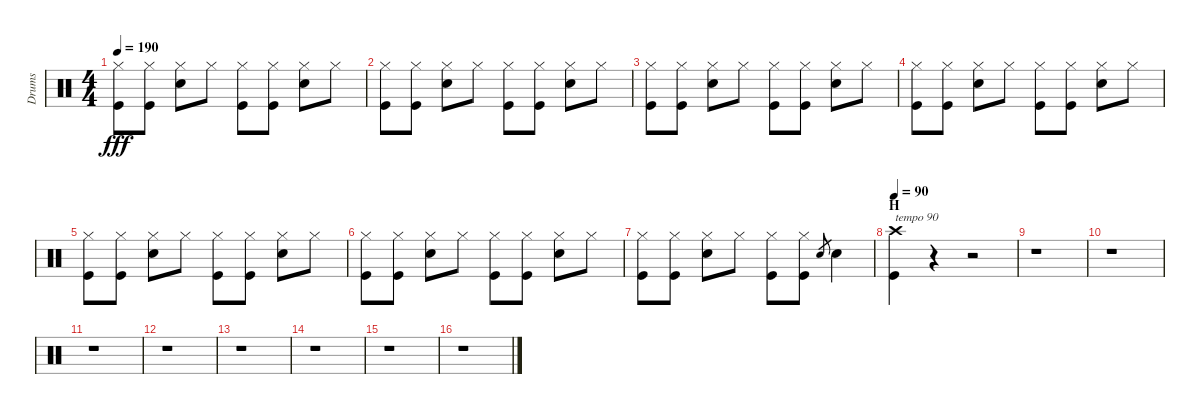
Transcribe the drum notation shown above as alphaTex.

\track ("Drums" "Drums") {instrument percussion}
\staff {score}
\articulation defaults
\ts (4 4)
\tempo 190
\clef neutral
\ks c
("Hi-Hat (closed)" "Kick (hit)").8{dy fff} ("Hi-Hat (closed)" "Kick (hit)").8 ("Hi-Hat (closed)" "Snare (hit) 2").8 "Hi-Hat (closed)".8 ("Hi-Hat (closed)" "Kick (hit)").8 ("Hi-Hat (closed)" "Kick (hit)").8 ("Hi-Hat (closed)" "Snare (hit) 2").8 "Hi-Hat (closed)".8 |
("Hi-Hat (closed)" "Kick (hit)").8 ("Hi-Hat (closed)" "Kick (hit)").8 ("Hi-Hat (closed)" "Snare (hit) 2").8 "Hi-Hat (closed)".8 ("Hi-Hat (closed)" "Kick (hit)").8 ("Hi-Hat (closed)" "Kick (hit)").8 ("Hi-Hat (closed)" "Snare (hit) 2").8 "Hi-Hat (closed)".8 |
("Hi-Hat (closed)" "Kick (hit)").8 ("Hi-Hat (closed)" "Kick (hit)").8 ("Hi-Hat (closed)" "Snare (hit) 2").8 "Hi-Hat (closed)".8 ("Hi-Hat (closed)" "Kick (hit)").8 ("Hi-Hat (closed)" "Kick (hit)").8 ("Hi-Hat (closed)" "Snare (hit) 2").8 "Hi-Hat (closed)".8 |
("Hi-Hat (closed)" "Kick (hit)").8 ("Hi-Hat (closed)" "Kick (hit)").8 ("Hi-Hat (closed)" "Snare (hit) 2").8 "Hi-Hat (closed)".8 ("Hi-Hat (closed)" "Kick (hit)").8 ("Hi-Hat (closed)" "Kick (hit)").8 ("Hi-Hat (closed)" "Snare (hit) 2").8 "Hi-Hat (closed)".8 |
("Hi-Hat (closed)" "Kick (hit)").8 ("Hi-Hat (closed)" "Kick (hit)").8 ("Hi-Hat (closed)" "Snare (hit) 2").8 "Hi-Hat (closed)".8 ("Hi-Hat (closed)" "Kick (hit)").8 ("Hi-Hat (closed)" "Kick (hit)").8 ("Hi-Hat (closed)" "Snare (hit) 2").8 "Hi-Hat (closed)".8 |
("Hi-Hat (closed)" "Kick (hit)").8 ("Hi-Hat (closed)" "Kick (hit)").8 ("Hi-Hat (closed)" "Snare (hit) 2").8 "Hi-Hat (closed)".8 ("Hi-Hat (closed)" "Kick (hit)").8 ("Hi-Hat (closed)" "Kick (hit)").8 ("Hi-Hat (closed)" "Snare (hit) 2").8 "Hi-Hat (closed)".8 |
("Hi-Hat (closed)" "Kick (hit)").8 ("Hi-Hat (closed)" "Kick (hit)").8 ("Hi-Hat (closed)" "Snare (hit) 2").8 "Hi-Hat (closed)".8 ("Hi-Hat (closed)" "Kick (hit)").8 ("Hi-Hat (closed)" "Kick (hit)").8 "Snare (hit) 2".8{gr} "Snare (hit) 2".4 |
\section ("" "H")
\tempo 90
("Crash high (hit)" "Kick (hit)").4{txt "tempo 90"} r.4 r.2 |
r.1 |
r.1 |
r.1 |
r.1 |
r.1 |
r.1 |
r.1 |
r.1
